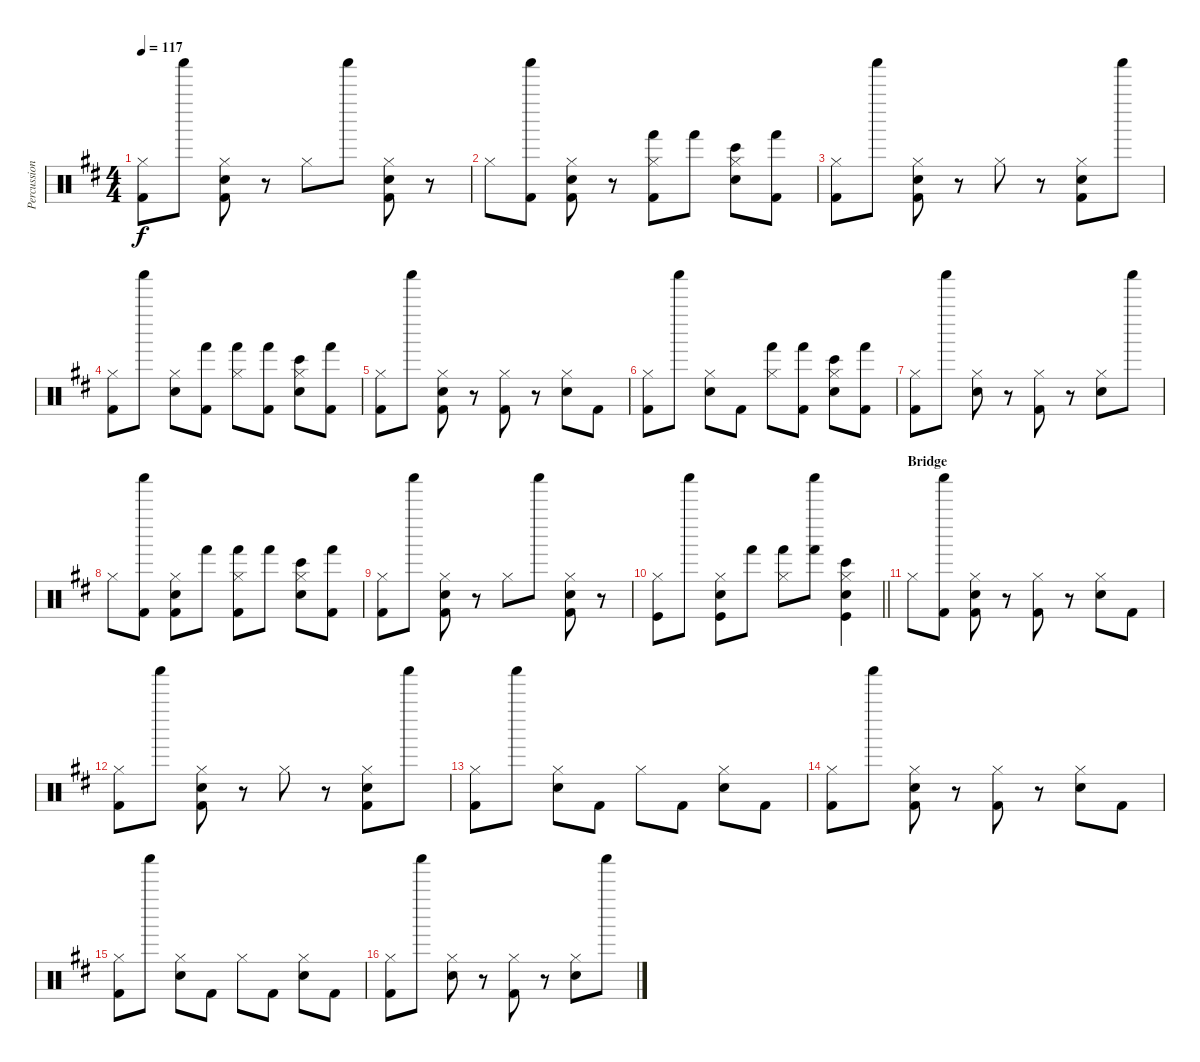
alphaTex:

\track ("Percussion" "Percussion") {instrument percussion}
\staff {score}
\articulation defaults
\ts (4 4)
\tempo 117
\clef neutral
\ks d
("Hi-Hat (closed)" "Kick (hit) 2").8{dy f} "Shaker (hit)".8 ("Hi-Hat (closed)" "Snare (hit) 2" "Kick (hit) 2").8 r.8 "Hi-Hat (closed)".8 "Shaker (hit)".8 ("Hi-Hat (closed)" "Snare (hit) 2" "Kick (hit) 2").8 r.8 |
"Hi-Hat (closed)".8 ("Shaker (hit)" "Kick (hit) 2").8 ("Hi-Hat (closed)" "Snare (hit) 2" "Kick (hit) 2").8 r.8 ("Hi-Hat (closed)" "Hand (hit)" "Kick (hit) 2").8 "Hand (hit)".8 ("Hi-Hat (closed)" "Bongo High (hit)" "Snare (hit) 2").8 ("Hand (hit)" "Kick (hit) 2").8 |
("Hi-Hat (closed)" "Kick (hit) 2").8 "Shaker (hit)".8 ("Hi-Hat (closed)" "Snare (hit) 2" "Kick (hit) 2").8 r.8 "Hi-Hat (closed)".8 r.8 ("Hi-Hat (closed)" "Snare (hit) 2" "Kick (hit) 2").8 "Shaker (hit)".8 |
("Hi-Hat (closed)" "Kick (hit) 2").8 "Shaker (hit)".8 ("Hi-Hat (closed)" "Snare (hit) 2").8 ("Hand (hit)" "Kick (hit) 2").8 ("Hi-Hat (closed)" "Hand (hit)").8 ("Hand (hit)" "Kick (hit) 2").8 ("Hi-Hat (closed)" "Bongo High (hit)" "Snare (hit) 2").8 ("Hand (hit)" "Kick (hit) 2").8 |
("Hi-Hat (closed)" "Kick (hit) 2").8 "Shaker (hit)".8 ("Hi-Hat (closed)" "Snare (hit) 2" "Kick (hit) 2").8 r.8 ("Hi-Hat (closed)" "Kick (hit) 2").8 r.8 ("Hi-Hat (closed)" "Snare (hit) 2").8 "Kick (hit) 2".8 |
("Hi-Hat (closed)" "Kick (hit) 2").8 "Shaker (hit)".8 ("Hi-Hat (closed)" "Snare (hit) 2").8 "Kick (hit) 2".8 ("Hi-Hat (closed)" "Hand (hit)").8 ("Hand (hit)" "Kick (hit) 2").8 ("Hi-Hat (closed)" "Bongo High (hit)" "Snare (hit) 2").8 ("Hand (hit)" "Kick (hit) 2").8 |
("Hi-Hat (closed)" "Kick (hit) 2").8 "Shaker (hit)".8 ("Hi-Hat (closed)" "Snare (hit) 2").8 r.8 ("Hi-Hat (closed)" "Kick (hit) 2").8 r.8 ("Hi-Hat (closed)" "Snare (hit) 2").8 "Shaker (hit)".8 |
"Hi-Hat (closed)".8 ("Shaker (hit)" "Kick (hit) 2").8 ("Hi-Hat (closed)" "Snare (hit) 2" "Kick (hit) 2").8 "Hand (hit)".8 ("Hi-Hat (closed)" "Hand (hit)" "Kick (hit) 2").8 "Hand (hit)".8 ("Hi-Hat (closed)" "Bongo High (hit)" "Snare (hit) 2").8 ("Hand (hit)" "Kick (hit) 2").8 |
("Hi-Hat (closed)" "Kick (hit) 2").8 "Shaker (hit)".8 ("Hi-Hat (closed)" "Snare (hit) 2" "Kick (hit) 2").8 r.8 "Hi-Hat (closed)".8 "Shaker (hit)".8 ("Hi-Hat (closed)" "Snare (hit) 2" "Kick (hit) 2").8 r.8 |
\barLineRight lightlight
("Hi-Hat (closed)" "Kick (hit)").8 "Shaker (hit)".8 ("Hi-Hat (closed)" "Snare (hit) 2" "Kick (hit)").8 "Hand (hit)".8 ("Hi-Hat (closed)" "Hand (hit)").8 ("Shaker (hit)" "Hand (hit)").8 ("Hi-Hat (closed)" "Bongo High (hit)" "Snare (hit) 2" "Kick (hit)").4 |
\section ("" "Bridge")
"Hi-Hat (closed)".8 ("Shaker (hit)" "Kick (hit) 2").8 ("Hi-Hat (closed)" "Snare (hit) 2" "Kick (hit) 2").8 r.8 ("Hi-Hat (closed)" "Kick (hit) 2").8 r.8 ("Hi-Hat (closed)" "Snare (hit) 2").8 "Kick (hit) 2".8 |
("Hi-Hat (closed)" "Kick (hit) 2").8 "Shaker (hit)".8 ("Hi-Hat (closed)" "Snare (hit) 2" "Kick (hit) 2").8 r.8 "Hi-Hat (closed)".8 r.8 ("Hi-Hat (closed)" "Snare (hit) 2" "Kick (hit) 2").8 "Shaker (hit)".8 |
("Hi-Hat (closed)" "Kick (hit) 2").8 "Shaker (hit)".8 ("Hi-Hat (closed)" "Snare (hit) 2").8 "Kick (hit) 2".8 "Hi-Hat (closed)".8 "Kick (hit) 2".8 ("Hi-Hat (closed)" "Snare (hit) 2").8 "Kick (hit) 2".8 |
("Hi-Hat (closed)" "Kick (hit) 2").8 "Shaker (hit)".8 ("Hi-Hat (closed)" "Snare (hit) 2" "Kick (hit) 2").8 r.8 ("Hi-Hat (closed)" "Kick (hit) 2").8 r.8 ("Hi-Hat (closed)" "Snare (hit) 2").8 "Kick (hit) 2".8 |
("Hi-Hat (closed)" "Kick (hit) 2").8 "Shaker (hit)".8 ("Hi-Hat (closed)" "Snare (hit) 2").8 "Kick (hit) 2".8 "Hi-Hat (closed)".8 "Kick (hit) 2".8 ("Hi-Hat (closed)" "Snare (hit) 2").8 "Kick (hit) 2".8 |
("Hi-Hat (closed)" "Kick (hit) 2").8 "Shaker (hit)".8 ("Hi-Hat (closed)" "Snare (hit) 2").8 r.8 ("Hi-Hat (closed)" "Kick (hit) 2").8 r.8 ("Hi-Hat (closed)" "Snare (hit) 2").8 "Shaker (hit)".8
